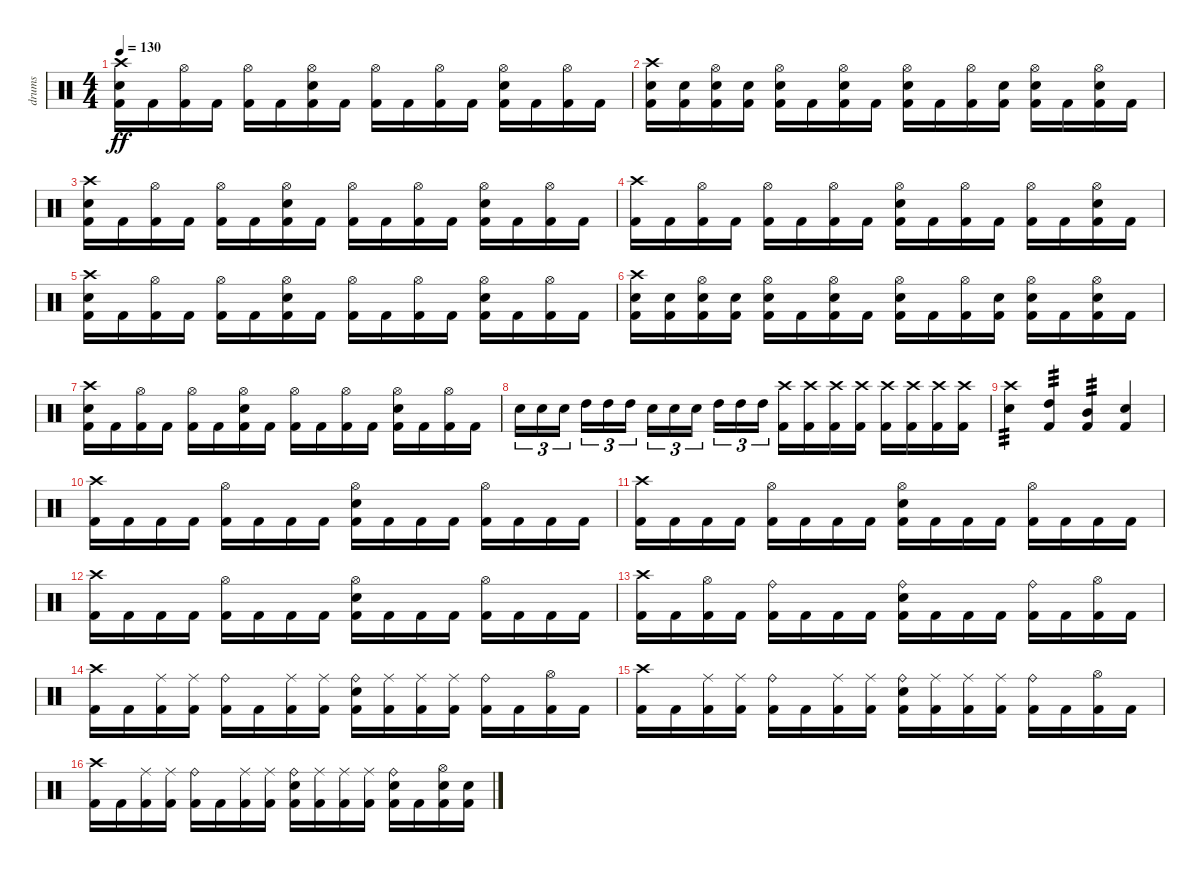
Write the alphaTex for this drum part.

\track ("drums" "drums") {instrument percussion}
\staff {score}
\articulation defaults
\ts (4 4)
\tempo 130
\clef neutral
\ks c
("Electric Snare (hit)" "Crash high (hit)" "Kick (hit) 2").16{dy ff} "Kick (hit) 2".16 ("Hi-Hat (open)" "Kick (hit) 2").16 "Kick (hit) 2".16 ("Hi-Hat (open)" "Kick (hit) 2").16 "Kick (hit) 2".16 ("Electric Snare (hit)" "Hi-Hat (open)" "Kick (hit) 2").16 "Kick (hit) 2".16 ("Hi-Hat (open)" "Kick (hit) 2").16 "Kick (hit) 2".16 ("Hi-Hat (open)" "Kick (hit) 2").16 "Kick (hit) 2".16 ("Electric Snare (hit)" "Hi-Hat (open)" "Kick (hit) 2").16 "Kick (hit) 2".16 ("Hi-Hat (open)" "Kick (hit) 2").16 "Kick (hit) 2".16 |
("Electric Snare (hit)" "Crash high (hit)" "Kick (hit) 2").16 ("Electric Snare (hit)" "Kick (hit) 2").16 ("Electric Snare (hit)" "Hi-Hat (open)" "Kick (hit) 2").16 ("Electric Snare (hit)" "Kick (hit) 2").16 ("Electric Snare (hit)" "Hi-Hat (open)" "Kick (hit) 2").16 "Kick (hit) 2".16 ("Electric Snare (hit)" "Hi-Hat (open)" "Kick (hit) 2").16 "Kick (hit) 2".16 ("Electric Snare (hit)" "Hi-Hat (open)" "Kick (hit) 2").16 "Kick (hit) 2".16 ("Hi-Hat (open)" "Kick (hit) 2").16 ("Electric Snare (hit)" "Kick (hit) 2").16 ("Electric Snare (hit)" "Hi-Hat (open)" "Kick (hit) 2").16 "Kick (hit) 2".16 ("Electric Snare (hit)" "Hi-Hat (open)" "Kick (hit) 2").16 "Kick (hit) 2".16 |
("Electric Snare (hit)" "Crash high (hit)" "Kick (hit) 2").16 "Kick (hit) 2".16 ("Hi-Hat (open)" "Kick (hit) 2").16 "Kick (hit) 2".16 ("Hi-Hat (open)" "Kick (hit) 2").16 "Kick (hit) 2".16 ("Electric Snare (hit)" "Hi-Hat (open)" "Kick (hit) 2").16 "Kick (hit) 2".16 ("Hi-Hat (open)" "Kick (hit) 2").16 "Kick (hit) 2".16 ("Hi-Hat (open)" "Kick (hit) 2").16 "Kick (hit) 2".16 ("Electric Snare (hit)" "Hi-Hat (open)" "Kick (hit) 2").16 "Kick (hit) 2".16 ("Hi-Hat (open)" "Kick (hit) 2").16 "Kick (hit) 2".16 |
("Crash high (hit)" "Kick (hit) 2").16 "Kick (hit) 2".16 ("Hi-Hat (open)" "Kick (hit) 2").16 "Kick (hit) 2".16 ("Hi-Hat (open)" "Kick (hit) 2").16 "Kick (hit) 2".16 ("Hi-Hat (open)" "Kick (hit) 2").16 "Kick (hit) 2".16 ("Electric Snare (hit)" "Hi-Hat (open)" "Kick (hit) 2").16 "Kick (hit) 2".16 ("Hi-Hat (open)" "Kick (hit) 2").16 "Kick (hit) 2".16 ("Hi-Hat (open)" "Kick (hit) 2").16 "Kick (hit) 2".16 ("Electric Snare (hit)" "Hi-Hat (open)" "Kick (hit) 2").16 "Kick (hit) 2".16 |
("Electric Snare (hit)" "Crash high (hit)" "Kick (hit) 2").16 "Kick (hit) 2".16 ("Hi-Hat (open)" "Kick (hit) 2").16 "Kick (hit) 2".16 ("Hi-Hat (open)" "Kick (hit) 2").16 "Kick (hit) 2".16 ("Electric Snare (hit)" "Hi-Hat (open)" "Kick (hit) 2").16 "Kick (hit) 2".16 ("Hi-Hat (open)" "Kick (hit) 2").16 "Kick (hit) 2".16 ("Hi-Hat (open)" "Kick (hit) 2").16 "Kick (hit) 2".16 ("Electric Snare (hit)" "Hi-Hat (open)" "Kick (hit) 2").16 "Kick (hit) 2".16 ("Hi-Hat (open)" "Kick (hit) 2").16 "Kick (hit) 2".16 |
("Electric Snare (hit)" "Crash high (hit)" "Kick (hit) 2").16 ("Electric Snare (hit)" "Kick (hit) 2").16 ("Electric Snare (hit)" "Hi-Hat (open)" "Kick (hit) 2").16 ("Electric Snare (hit)" "Kick (hit) 2").16 ("Electric Snare (hit)" "Hi-Hat (open)" "Kick (hit) 2").16 "Kick (hit) 2".16 ("Electric Snare (hit)" "Hi-Hat (open)" "Kick (hit) 2").16 "Kick (hit) 2".16 ("Electric Snare (hit)" "Hi-Hat (open)" "Kick (hit) 2").16 "Kick (hit) 2".16 ("Hi-Hat (open)" "Kick (hit) 2").16 ("Electric Snare (hit)" "Kick (hit) 2").16 ("Electric Snare (hit)" "Hi-Hat (open)" "Kick (hit) 2").16 "Kick (hit) 2".16 ("Electric Snare (hit)" "Hi-Hat (open)" "Kick (hit) 2").16 "Kick (hit) 2".16 |
("Electric Snare (hit)" "Crash high (hit)" "Kick (hit) 2").16 "Kick (hit) 2".16 ("Hi-Hat (open)" "Kick (hit) 2").16 "Kick (hit) 2".16 ("Hi-Hat (open)" "Kick (hit) 2").16 "Kick (hit) 2".16 ("Electric Snare (hit)" "Hi-Hat (open)" "Kick (hit) 2").16 "Kick (hit) 2".16 ("Hi-Hat (open)" "Kick (hit) 2").16 "Kick (hit) 2".16 ("Hi-Hat (open)" "Kick (hit) 2").16 "Kick (hit) 2".16 ("Electric Snare (hit)" "Hi-Hat (open)" "Kick (hit) 2").16 "Kick (hit) 2".16 ("Hi-Hat (open)" "Kick (hit) 2").16 "Kick (hit) 2".16 |
"Electric Snare (hit)".16{tu (3 2)} "Electric Snare (hit)".16{tu (3 2)} "Electric Snare (hit)".16{tu (3 2) beam splitsecondary} "High Tom (hit)".16{tu (3 2)} "High Tom (hit)".16{tu (3 2)} "High Tom (hit)".16{tu (3 2)} "Electric Snare (hit)".16{tu (3 2)} "Electric Snare (hit)".16{tu (3 2)} "Electric Snare (hit)".16{tu (3 2) beam splitsecondary} "High Tom (hit)".16{tu (3 2)} "High Tom (hit)".16{tu (3 2)} "High Tom (hit)".16{tu (3 2)} ("Crash high (hit)" "Kick (hit) 2").16{volume 13} ("Kick (hit) 2" "Crash high (hit)").16{volume 0} ("Crash high (hit)" "Kick (hit) 2").16{volume 13} ("Kick (hit) 2" "Crash high (hit)").16{volume 0} ("Crash high (hit)" "Kick (hit) 2").16{volume 13} ("Kick (hit) 2" "Crash high (hit)").16{volume 0} ("Crash high (hit)" "Kick (hit) 2").16{volume 13} ("Kick (hit) 2" "Crash high (hit)").16{volume 0} |
("Electric Snare (hit)" "Crash high (hit)").4{tp 3 volume 13} ("High Tom (hit)" "Kick (hit) 2").4{tp 3} ("Mid Tom (hit)" "Kick (hit) 2").4{tp 3} ("Electric Snare (hit)" "Kick (hit) 2").4 |
("Crash high (hit)" "Kick (hit) 2").16 "Kick (hit) 2".16 "Kick (hit) 2".16 "Kick (hit) 2".16 ("Hi-Hat (open)" "Kick (hit) 2").16 "Kick (hit) 2".16 "Kick (hit) 2".16 "Kick (hit) 2".16 ("Electric Snare (hit)" "Hi-Hat (open)" "Kick (hit) 2").16 "Kick (hit) 2".16 "Kick (hit) 2".16 "Kick (hit) 2".16 ("Hi-Hat (open)" "Kick (hit) 2").16 "Kick (hit) 2".16 "Kick (hit) 2".16 "Kick (hit) 2".16 |
("Crash high (hit)" "Kick (hit) 2").16 "Kick (hit) 2".16 "Kick (hit) 2".16 "Kick (hit) 2".16 ("Hi-Hat (open)" "Kick (hit) 2").16 "Kick (hit) 2".16 "Kick (hit) 2".16 "Kick (hit) 2".16 ("Electric Snare (hit)" "Hi-Hat (open)" "Kick (hit) 2").16 "Kick (hit) 2".16 "Kick (hit) 2".16 "Kick (hit) 2".16 ("Hi-Hat (open)" "Kick (hit) 2").16 "Kick (hit) 2".16 "Kick (hit) 2".16 "Kick (hit) 2".16 |
("Crash high (hit)" "Kick (hit) 2").16 "Kick (hit) 2".16 "Kick (hit) 2".16 "Kick (hit) 2".16 ("Hi-Hat (open)" "Kick (hit) 2").16 "Kick (hit) 2".16 "Kick (hit) 2".16 "Kick (hit) 2".16 ("Electric Snare (hit)" "Hi-Hat (open)" "Kick (hit) 2").16 "Kick (hit) 2".16 "Kick (hit) 2".16 "Kick (hit) 2".16 ("Hi-Hat (open)" "Kick (hit) 2").16 "Kick (hit) 2".16 "Kick (hit) 2".16 "Kick (hit) 2".16 |
("Crash high (hit)" "Kick (hit) 2").16 "Kick (hit) 2".16 ("Hi-Hat (open)" "Kick (hit) 2").16 "Kick (hit) 2".16 ("Ride (bell)" "Kick (hit) 2").16 "Kick (hit) 2".16 "Kick (hit) 2".16 "Kick (hit) 2".16 ("Electric Snare (hit)" "Ride (bell)" "Kick (hit) 2").16 "Kick (hit) 2".16 "Kick (hit) 2".16 "Kick (hit) 2".16 ("Ride (bell)" "Kick (hit) 2").16 "Kick (hit) 2".16 ("Hi-Hat (open)" "Kick (hit) 2").16 "Kick (hit) 2".16 |
("Crash high (hit)" "Kick (hit) 2").16 "Kick (hit) 2".16 ("Ride (middle)" "Kick (hit) 2").16 ("Ride (middle)" "Kick (hit) 2").16 ("Ride (bell)" "Kick (hit) 2").16 "Kick (hit) 2".16 ("Ride (middle)" "Kick (hit) 2").16 ("Ride (middle)" "Kick (hit) 2").16 ("Electric Snare (hit)" "Ride (bell)" "Kick (hit) 2").16 ("Ride (middle)" "Kick (hit) 2").16 ("Ride (middle)" "Kick (hit) 2").16 ("Ride (middle)" "Kick (hit) 2").16 ("Ride (bell)" "Kick (hit) 2").16 "Kick (hit) 2".16 ("Hi-Hat (open)" "Kick (hit) 2").16 "Kick (hit) 2".16 |
("Crash high (hit)" "Kick (hit) 2").16 "Kick (hit) 2".16 ("Ride (middle)" "Kick (hit) 2").16 ("Ride (middle)" "Kick (hit) 2").16 ("Ride (bell)" "Kick (hit) 2").16 "Kick (hit) 2".16 ("Ride (middle)" "Kick (hit) 2").16 ("Ride (middle)" "Kick (hit) 2").16 ("Electric Snare (hit)" "Ride (bell)" "Kick (hit) 2").16 ("Ride (middle)" "Kick (hit) 2").16 ("Ride (middle)" "Kick (hit) 2").16 ("Ride (middle)" "Kick (hit) 2").16 ("Ride (bell)" "Kick (hit) 2").16 "Kick (hit) 2".16 ("Hi-Hat (open)" "Kick (hit) 2").16 "Kick (hit) 2".16 |
("Crash high (hit)" "Kick (hit) 2").16 "Kick (hit) 2".16 ("Ride (middle)" "Kick (hit) 2").16 ("Ride (middle)" "Kick (hit) 2").16 ("Ride (bell)" "Kick (hit) 2").16 "Kick (hit) 2".16 ("Ride (middle)" "Kick (hit) 2").16 ("Ride (middle)" "Kick (hit) 2").16 ("Electric Snare (hit)" "Ride (bell)" "Kick (hit) 2").16 ("Ride (middle)" "Kick (hit) 2").16 ("Ride (middle)" "Kick (hit) 2").16 ("Ride (middle)" "Kick (hit) 2").16 ("Electric Snare (hit)" "Ride (bell)" "Kick (hit) 2").16 "Kick (hit) 2".16 ("Electric Snare (hit)" "Hi-Hat (open)" "Kick (hit) 2").16 ("Electric Snare (hit)" "Kick (hit) 2").16
